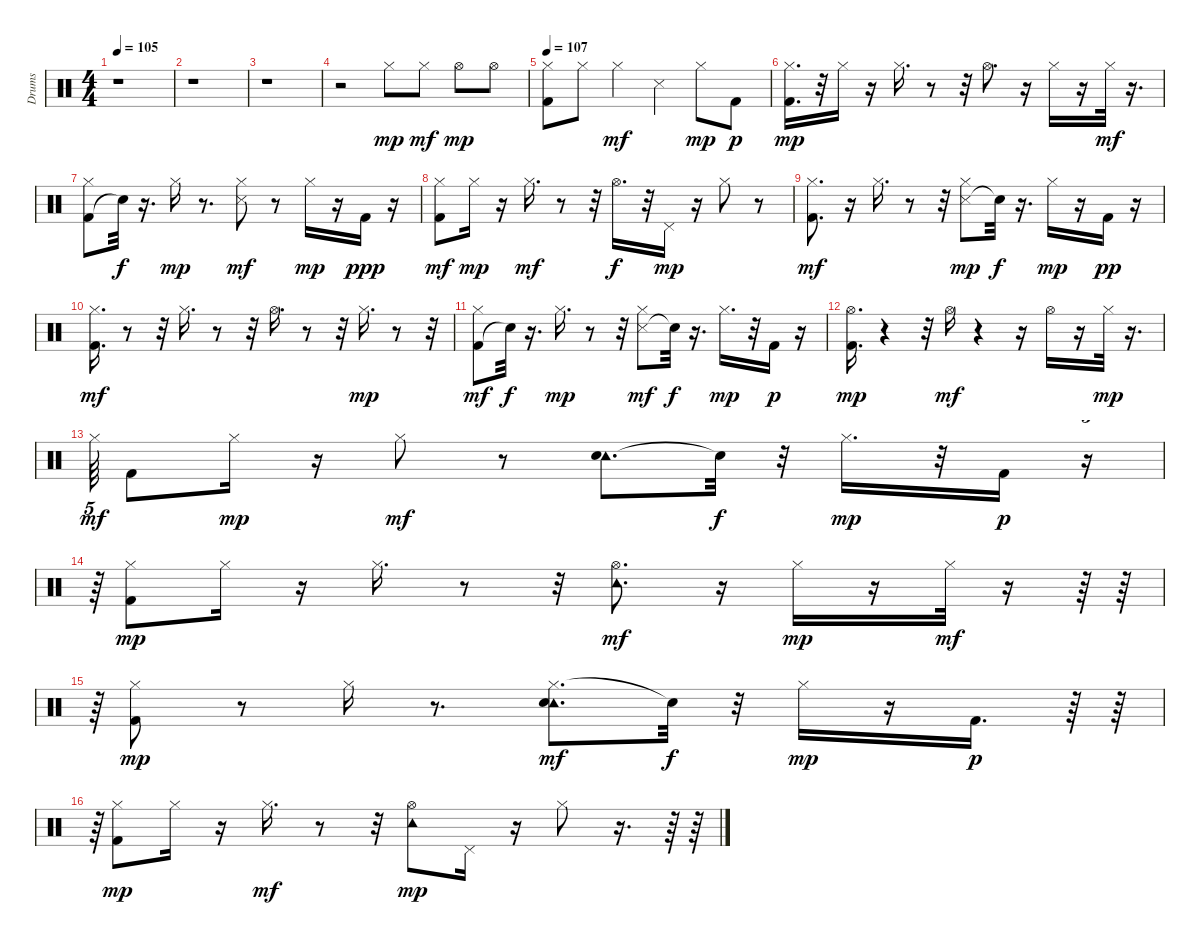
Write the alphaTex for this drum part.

\track ("Drums" "Drums") {instrument percussion}
\staff {score}
\articulation defaults
\ts (4 4)
\tempo 105
\clef neutral
\ks c
r.1{dy mp} |
r.1 |
r.1 |
r.2 "Hi-Hat (closed)".8 "Hi-Hat (closed)".8{dy mf} "Hi-Hat (open)".8{dy mp} "Hi-Hat (open)".8 |
\tempo 107
("Hi-Hat (closed)" "Kick (hit) 2").8 "Hi-Hat (closed)".8 "Hi-Hat (closed)".4{dy mf} "Snare (side stick) 3".4 "Hi-Hat (closed)".8{dy mp} "Kick (hit) 2".8{dy p} |
("Hi-Hat (closed)" "Kick (hit) 2").16{d dy mp} r.32 "Hi-Hat (closed)".16 r.16 "Hi-Hat (closed)".16{d} r.8 r.32 "Hi-Hat (open)".8{d} r.16 "Hi-Hat (closed)".16 r.16 "Hi-Hat (closed)".32{dy mf} r.16{d} |
("Kick (hit) 2" "Hi-Hat (closed)").8 "Snare (hit)"{t}.32{dy f} r.16{d} "Hi-Hat (closed)".16{dy mp} r.8{d} ("Snare (side stick) 3" "Hi-Hat (closed)").8{dy mf} r.8 "Hi-Hat (closed)".16{dy mp} r.16 "Kick (hit) 2".16{dy ppp} r.16 |
("Kick (hit) 2" "Hi-Hat (closed)").8{dy mf} "Hi-Hat (closed)".16{dy mp} r.16 "Hi-Hat (closed)".16{d dy mf} r.8 r.32 "Hi-Hat (open)".16{d dy f} r.32 "Pedal Hi-Hat (hit)".16{dy mp} r.16 "Hi-Hat (closed)".8 r.8 |
("Kick (hit) 2" "Hi-Hat (closed)").8{d dy mf} r.16 "Hi-Hat (closed)".16{d} r.8 r.32 ("Snare (side stick) 3" "Hi-Hat (closed)").8{dy mp} "Snare (hit)"{t}.32{dy f} r.16{d} "Hi-Hat (closed)".16{dy mp} r.16 "Kick (hit) 2".16{dy pp} r.16 |
("Kick (hit) 2" "Hi-Hat (closed)").16{d dy mf} r.8 r.32 "Hi-Hat (closed)".16{d} r.8 r.32 "Hi-Hat (open)".16{d} r.8 r.32 "Hi-Hat (closed)".16{d dy mp} r.8 r.32 |
("Kick (hit) 2" "Hi-Hat (closed)").8{dy mf} "Snare (hit)"{t}.32{dy f} r.16{d} "Hi-Hat (closed)".16{d dy mp} r.8 r.32 ("Snare (side stick) 3" "Hi-Hat (closed)").8{dy mf} "Snare (hit)"{t}.32{dy f} r.16{d} "Hi-Hat (closed)".16{d dy mp} r.32 "Kick (hit) 2".16{dy p} r.16 |
("Kick (hit) 2" "Hi-Hat (open)").16{d dy mp} r.4 r.32 "Hi-Hat (open)".16{dy mf} r.4 r.16 "Hi-Hat (open)".16 r.16 "Hi-Hat (closed)".32{dy mp} r.16{d} |
"Hi-Hat (closed)".64{tu (5 4) dy mf} "Kick (hit) 2".8 "Hi-Hat (closed)".16{dy mp} r.16 "Hi-Hat (closed)".8{dy mf} r.8 ("Tambourine (hit)" "Electric Snare (hit)").8{d} "Snare (hit)"{t}.32{dy f} r.32 "Hi-Hat (closed)".16{d dy mp} r.32 "Kick (hit) 2".16{dy p} r.16{tu (5 4)} |
r.64{tu (5 4)} ("Hi-Hat (closed)" "Kick (hit) 2").8{dy mp} "Hi-Hat (closed)".16 r.16 "Hi-Hat (closed)".16{d} r.8 r.32 ("Hi-Hat (open)" "Tambourine (hit)").8{d dy mf} r.16 "Hi-Hat (closed)".16{dy mp} r.16 "Hi-Hat (closed)".32{dy mf} r.16 r.64 r.64 |
r.64{tu (5 4)} ("Hi-Hat (closed)" "Kick (hit) 2").8{dy mp} r.8 "Hi-Hat (closed)".16 r.8{d} ("Hi-Hat (closed)" "Tambourine (hit)" "Electric Snare (hit)").8{d dy mf} "Snare (hit)"{t}.32{dy f} r.32 "Hi-Hat (closed)".16{dy mp} r.16 "Kick (hit) 2".16{d dy p} r.64 r.64 |
r.64{tu (5 4)} ("Hi-Hat (closed)" "Kick (hit) 2").8{dy mp} "Hi-Hat (closed)".16 r.16 "Hi-Hat (closed)".16{d dy mf} r.8 r.32 ("Hi-Hat (open)" "Tambourine (hit)").8{dy mp} "Pedal Hi-Hat (hit)".16 r.16 "Hi-Hat (closed)".8 r.16{d} r.64 r.64
